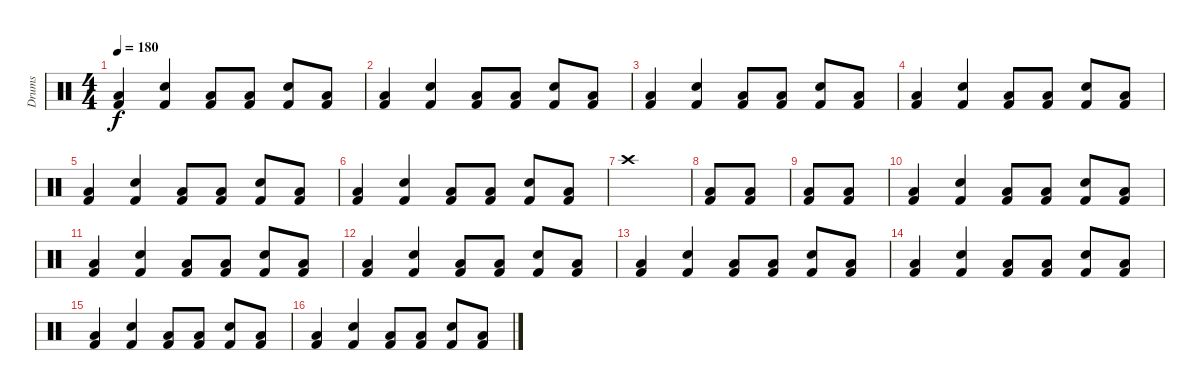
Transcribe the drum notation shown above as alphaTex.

\track ("Drums" "Drums") {instrument percussion}
\staff {score}
\articulation defaults
\ts (4 4)
\tempo 180
\clef neutral
\ks c
("Kick (hit) 2" "Low Tom (hit)").4{dy f} ("Kick (hit) 2" "Electric Snare (hit)").4 ("Kick (hit) 2" "Low Tom (hit)").8 ("Kick (hit) 2" "Low Tom (hit)").8 ("Kick (hit) 2" "Electric Snare (hit)").8 ("Kick (hit) 2" "Low Tom (hit)").8 |
("Kick (hit) 2" "Low Tom (hit)").4 ("Kick (hit) 2" "Electric Snare (hit)").4 ("Kick (hit) 2" "Low Tom (hit)").8 ("Kick (hit) 2" "Low Tom (hit)").8 ("Kick (hit) 2" "Electric Snare (hit)").8 ("Kick (hit) 2" "Low Tom (hit)").8 |
("Kick (hit) 2" "Low Tom (hit)").4 ("Kick (hit) 2" "Electric Snare (hit)").4 ("Kick (hit) 2" "Low Tom (hit)").8 ("Kick (hit) 2" "Low Tom (hit)").8 ("Kick (hit) 2" "Electric Snare (hit)").8 ("Kick (hit) 2" "Low Tom (hit)").8 |
("Kick (hit) 2" "Low Tom (hit)").4 ("Kick (hit) 2" "Electric Snare (hit)").4 ("Kick (hit) 2" "Low Tom (hit)").8 ("Kick (hit) 2" "Low Tom (hit)").8 ("Kick (hit) 2" "Electric Snare (hit)").8 ("Kick (hit) 2" "Low Tom (hit)").8 |
("Kick (hit) 2" "Low Tom (hit)").4 ("Kick (hit) 2" "Electric Snare (hit)").4 ("Kick (hit) 2" "Low Tom (hit)").8 ("Kick (hit) 2" "Low Tom (hit)").8 ("Kick (hit) 2" "Electric Snare (hit)").8 ("Kick (hit) 2" "Low Tom (hit)").8 |
("Kick (hit) 2" "Low Tom (hit)").4 ("Kick (hit) 2" "Electric Snare (hit)").4 ("Kick (hit) 2" "Low Tom (hit)").8 ("Kick (hit) 2" "Low Tom (hit)").8 ("Kick (hit) 2" "Electric Snare (hit)").8 ("Kick (hit) 2" "Low Tom (hit)").8 |
"Crash high (hit)".1 |
("Kick (hit) 2" "Low Tom (hit)").8 ("Kick (hit) 2" "Low Tom (hit)").8 |
("Kick (hit) 2" "Low Tom (hit)").8 ("Kick (hit) 2" "Low Tom (hit)").8 |
("Kick (hit) 2" "Low Tom (hit)").4 ("Kick (hit) 2" "Electric Snare (hit)").4 ("Kick (hit) 2" "Low Tom (hit)").8 ("Kick (hit) 2" "Low Tom (hit)").8 ("Kick (hit) 2" "Electric Snare (hit)").8 ("Kick (hit) 2" "Low Tom (hit)").8 |
("Kick (hit) 2" "Low Tom (hit)").4 ("Kick (hit) 2" "Electric Snare (hit)").4 ("Kick (hit) 2" "Low Tom (hit)").8 ("Kick (hit) 2" "Low Tom (hit)").8 ("Kick (hit) 2" "Electric Snare (hit)").8 ("Kick (hit) 2" "Low Tom (hit)").8 |
("Kick (hit) 2" "Low Tom (hit)").4 ("Kick (hit) 2" "Electric Snare (hit)").4 ("Kick (hit) 2" "Low Tom (hit)").8 ("Kick (hit) 2" "Low Tom (hit)").8 ("Kick (hit) 2" "Electric Snare (hit)").8 ("Kick (hit) 2" "Low Tom (hit)").8 |
("Kick (hit) 2" "Low Tom (hit)").4 ("Kick (hit) 2" "Electric Snare (hit)").4 ("Kick (hit) 2" "Low Tom (hit)").8 ("Kick (hit) 2" "Low Tom (hit)").8 ("Kick (hit) 2" "Electric Snare (hit)").8 ("Kick (hit) 2" "Low Tom (hit)").8 |
("Kick (hit) 2" "Low Tom (hit)").4 ("Kick (hit) 2" "Electric Snare (hit)").4 ("Kick (hit) 2" "Low Tom (hit)").8 ("Kick (hit) 2" "Low Tom (hit)").8 ("Kick (hit) 2" "Electric Snare (hit)").8 ("Kick (hit) 2" "Low Tom (hit)").8 |
("Kick (hit) 2" "Low Tom (hit)").4 ("Kick (hit) 2" "Electric Snare (hit)").4 ("Kick (hit) 2" "Low Tom (hit)").8 ("Kick (hit) 2" "Low Tom (hit)").8 ("Kick (hit) 2" "Electric Snare (hit)").8 ("Kick (hit) 2" "Low Tom (hit)").8 |
("Kick (hit) 2" "Low Tom (hit)").4 ("Kick (hit) 2" "Electric Snare (hit)").4 ("Kick (hit) 2" "Low Tom (hit)").8 ("Kick (hit) 2" "Low Tom (hit)").8 ("Kick (hit) 2" "Electric Snare (hit)").8 ("Kick (hit) 2" "Low Tom (hit)").8
